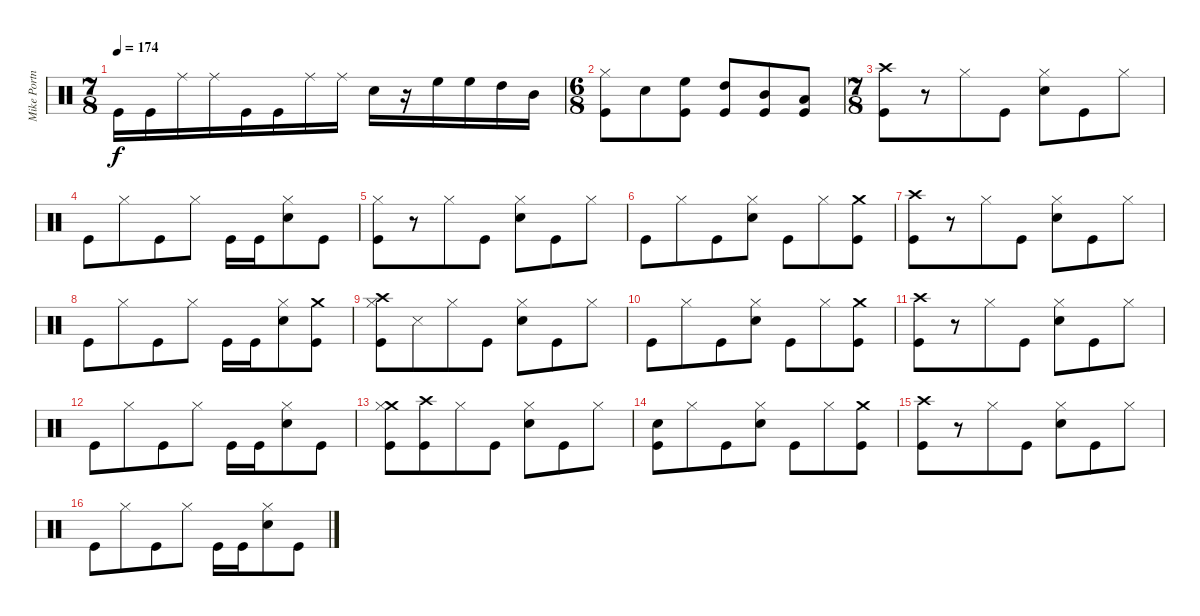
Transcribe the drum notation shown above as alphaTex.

\track ("Mike Portnoy" "Mike Portn") {instrument percussion}
\staff {score}
\articulation defaults
\ts (7 8)
\tempo 174
\clef neutral
\ks c "Kick (hit)".16{dy f} "Kick (hit)".16 "Ride (middle)".16 "Ride (middle)".16 "Kick (hit)".16 "Kick (hit)".16 "Ride (middle)".16 "Ride (middle)".16 "Snare (hit) 2".16
r.16 "High Floor Tom (hit)".16 "High Floor Tom (hit)".16 "High Tom (hit)".16 "Mid Tom (hit)".16 |
\ts (6 8)
("Hi-Hat (closed)" "Kick (hit)").8 "Snare (hit) 2".8 ("High Floor Tom (hit)" "Kick (hit)").8 ("High Tom (hit)" "Kick (hit)").8 ("Mid Tom (hit)" "Kick (hit)").8 ("Low Tom (hit)" "Kick (hit)").8 |
\ts (7 8)
("Crash high (hit)" "Kick (hit)").8 r.8 "Hi-Hat (closed)".8 "Kick (hit)".8 ("Snare (hit) 2" "Hi-Hat (closed)").8 "Kick (hit)".8 "Hi-Hat (closed)".8 |
"Kick (hit)".8 "Hi-Hat (closed)".8 "Kick (hit)".8 "Hi-Hat (closed)".8 "Kick (hit)".16 "Kick (hit)".16 ("Snare (hit) 2" "Hi-Hat (closed)").8 "Kick (hit)".8 |
("Hi-Hat (closed)" "Kick (hit)").8 r.8 "Hi-Hat (closed)".8 "Kick (hit)".8 ("Snare (hit) 2" "Hi-Hat (closed)").8 "Kick (hit)".8 "Hi-Hat (closed)".8 |
"Kick (hit)".8 "Hi-Hat (closed)".8 "Kick (hit)".8 ("Snare (hit) 2" "Hi-Hat (closed)").8 "Kick (hit)".8 "Hi-Hat (closed)".8 ("Crash medium (hit)" "Kick (hit)").8 |
("Crash high (hit)" "Kick (hit)").8 r.8 "Hi-Hat (closed)".8 "Kick (hit)".8 ("Snare (hit) 2" "Hi-Hat (closed)").8 "Kick (hit)".8 "Hi-Hat (closed)".8 |
"Kick (hit)".8 "Hi-Hat (closed)".8 "Kick (hit)".8 "Hi-Hat (closed)".8 "Kick (hit)".16 "Kick (hit)".16 ("Snare (hit) 2" "Hi-Hat (closed)").8 ("Crash medium (hit)" "Kick (hit)").8 |
("Crash high (hit)" "Hi-Hat (closed)" "Kick (hit)").8 "Snare (side stick) 3".8 "Hi-Hat (closed)".8 "Kick (hit)".8 ("Snare (hit) 2" "Hi-Hat (closed)").8 "Kick (hit)".8 "Hi-Hat (closed)".8 |
"Kick (hit)".8 "Hi-Hat (closed)".8 "Kick (hit)".8 ("Snare (hit) 2" "Hi-Hat (closed)").8 "Kick (hit)".8 "Hi-Hat (closed)".8 ("Crash medium (hit)" "Kick (hit)").8 |
("Crash high (hit)" "Kick (hit)").8 r.8 "Hi-Hat (closed)".8 "Kick (hit)".8 ("Snare (hit) 2" "Hi-Hat (closed)").8 "Kick (hit)".8 "Hi-Hat (closed)".8 |
"Kick (hit)".8 "Hi-Hat (closed)".8 "Kick (hit)".8 "Hi-Hat (closed)".8 "Kick (hit)".16 "Kick (hit)".16 ("Snare (hit) 2" "Hi-Hat (closed)").8 "Kick (hit)".8 |
("Crash medium (hit)" "Hi-Hat (closed)" "Kick (hit)").8 ("Crash high (hit)" "Kick (hit)").8 "Hi-Hat (closed)".8 "Kick (hit)".8 ("Snare (hit) 2" "Hi-Hat (closed)").8 "Kick (hit)".8 "Hi-Hat (closed)".8 |
("Snare (hit) 2" "Kick (hit)").8 "Hi-Hat (closed)".8 "Kick (hit)".8 ("Snare (hit) 2" "Hi-Hat (closed)").8 "Kick (hit)".8 "Hi-Hat (closed)".8 ("Crash medium (hit)" "Kick (hit)").8 |
("Crash high (hit)" "Kick (hit)").8 r.8 "Hi-Hat (closed)".8 "Kick (hit)".8 ("Snare (hit) 2" "Hi-Hat (closed)").8 "Kick (hit)".8 "Hi-Hat (closed)".8 |
"Kick (hit)".8 "Hi-Hat (closed)".8 "Kick (hit)".8 "Hi-Hat (closed)".8 "Kick (hit)".16 "Kick (hit)".16 ("Snare (hit) 2" "Hi-Hat (closed)").8 "Kick (hit)".8
